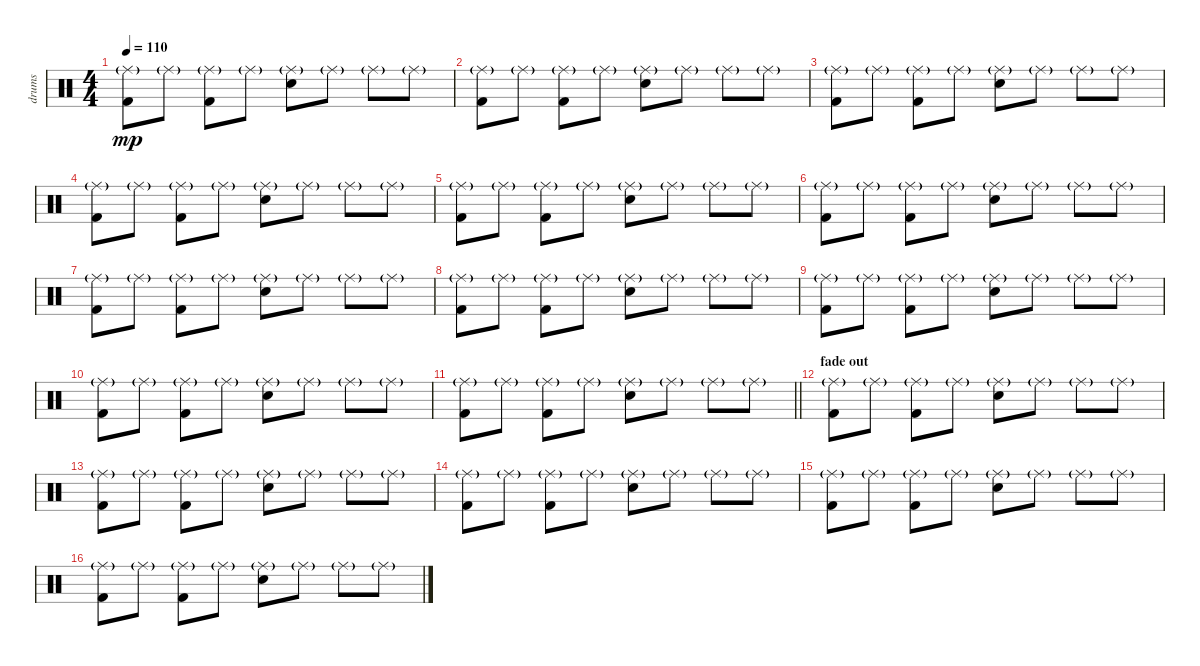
\track ("drums" "drums") {instrument percussion}
\staff {score}
\articulation defaults
\ts (4 4)
\tempo 110
\clef neutral
\ks c
("Kick (hit) 2" "Ride (middle)"{g}).8{dy mp} "Ride (middle)"{g}.8 ("Kick (hit) 2" "Ride (middle)"{g}).8 "Ride (middle)"{g}.8 ("Electric Snare (hit)" "Ride (middle)"{g}).8 "Ride (middle)"{g}.8 "Ride (middle)"{g}.8 "Ride (middle)"{g}.8 |
("Kick (hit) 2" "Ride (middle)"{g}).8 "Ride (middle)"{g}.8 ("Kick (hit) 2" "Ride (middle)"{g}).8 "Ride (middle)"{g}.8 ("Electric Snare (hit)" "Ride (middle)"{g}).8 "Ride (middle)"{g}.8 "Ride (middle)"{g}.8 "Ride (middle)"{g}.8 |
("Kick (hit) 2" "Ride (middle)"{g}).8 "Ride (middle)"{g}.8 ("Kick (hit) 2" "Ride (middle)"{g}).8 "Ride (middle)"{g}.8 ("Electric Snare (hit)" "Ride (middle)"{g}).8 "Ride (middle)"{g}.8 "Ride (middle)"{g}.8 "Ride (middle)"{g}.8 |
("Kick (hit) 2" "Ride (middle)"{g}).8 "Ride (middle)"{g}.8 ("Kick (hit) 2" "Ride (middle)"{g}).8 "Ride (middle)"{g}.8 ("Electric Snare (hit)" "Ride (middle)"{g}).8 "Ride (middle)"{g}.8 "Ride (middle)"{g}.8 "Ride (middle)"{g}.8 |
("Kick (hit) 2" "Ride (middle)"{g}).8 "Ride (middle)"{g}.8 ("Kick (hit) 2" "Ride (middle)"{g}).8 "Ride (middle)"{g}.8 ("Electric Snare (hit)" "Ride (middle)"{g}).8 "Ride (middle)"{g}.8 "Ride (middle)"{g}.8 "Ride (middle)"{g}.8 |
("Kick (hit) 2" "Ride (middle)"{g}).8 "Ride (middle)"{g}.8 ("Kick (hit) 2" "Ride (middle)"{g}).8 "Ride (middle)"{g}.8 ("Electric Snare (hit)" "Ride (middle)"{g}).8 "Ride (middle)"{g}.8 "Ride (middle)"{g}.8 "Ride (middle)"{g}.8 |
("Kick (hit) 2" "Ride (middle)"{g}).8 "Ride (middle)"{g}.8 ("Kick (hit) 2" "Ride (middle)"{g}).8 "Ride (middle)"{g}.8 ("Electric Snare (hit)" "Ride (middle)"{g}).8 "Ride (middle)"{g}.8 "Ride (middle)"{g}.8 "Ride (middle)"{g}.8 |
("Kick (hit) 2" "Ride (middle)"{g}).8 "Ride (middle)"{g}.8 ("Kick (hit) 2" "Ride (middle)"{g}).8 "Ride (middle)"{g}.8 ("Electric Snare (hit)" "Ride (middle)"{g}).8 "Ride (middle)"{g}.8 "Ride (middle)"{g}.8 "Ride (middle)"{g}.8 |
("Kick (hit) 2" "Ride (middle)"{g}).8 "Ride (middle)"{g}.8 ("Kick (hit) 2" "Ride (middle)"{g}).8 "Ride (middle)"{g}.8 ("Electric Snare (hit)" "Ride (middle)"{g}).8 "Ride (middle)"{g}.8 "Ride (middle)"{g}.8 "Ride (middle)"{g}.8 |
("Kick (hit) 2" "Ride (middle)"{g}).8 "Ride (middle)"{g}.8 ("Kick (hit) 2" "Ride (middle)"{g}).8 "Ride (middle)"{g}.8 ("Electric Snare (hit)" "Ride (middle)"{g}).8 "Ride (middle)"{g}.8 "Ride (middle)"{g}.8 "Ride (middle)"{g}.8 |
\barLineRight lightlight
("Kick (hit) 2" "Ride (middle)"{g}).8 "Ride (middle)"{g}.8 ("Kick (hit) 2" "Ride (middle)"{g}).8 "Ride (middle)"{g}.8 ("Electric Snare (hit)" "Ride (middle)"{g}).8 "Ride (middle)"{g}.8 "Ride (middle)"{g}.8 "Ride (middle)"{g}.8 |
\section ("" "fade out")
("Kick (hit) 2" "Ride (middle)"{g}).8 "Ride (middle)"{g}.8 ("Kick (hit) 2" "Ride (middle)"{g}).8 "Ride (middle)"{g}.8 ("Electric Snare (hit)" "Ride (middle)"{g}).8 "Ride (middle)"{g}.8 "Ride (middle)"{g}.8 "Ride (middle)"{g}.8 |
("Kick (hit) 2" "Ride (middle)"{g}).8 "Ride (middle)"{g}.8 ("Kick (hit) 2" "Ride (middle)"{g}).8 "Ride (middle)"{g}.8 ("Electric Snare (hit)" "Ride (middle)"{g}).8 "Ride (middle)"{g}.8 "Ride (middle)"{g}.8 "Ride (middle)"{g}.8 |
("Kick (hit) 2" "Ride (middle)"{g}).8 "Ride (middle)"{g}.8 ("Kick (hit) 2" "Ride (middle)"{g}).8 "Ride (middle)"{g}.8 ("Electric Snare (hit)" "Ride (middle)"{g}).8 "Ride (middle)"{g}.8 "Ride (middle)"{g}.8 "Ride (middle)"{g}.8 |
("Kick (hit) 2" "Ride (middle)"{g}).8 "Ride (middle)"{g}.8 ("Kick (hit) 2" "Ride (middle)"{g}).8 "Ride (middle)"{g}.8 ("Electric Snare (hit)" "Ride (middle)"{g}).8 "Ride (middle)"{g}.8 "Ride (middle)"{g}.8 "Ride (middle)"{g}.8 |
("Kick (hit) 2" "Ride (middle)"{g}).8 "Ride (middle)"{g}.8 ("Kick (hit) 2" "Ride (middle)"{g}).8 "Ride (middle)"{g}.8 ("Electric Snare (hit)" "Ride (middle)"{g}).8 "Ride (middle)"{g}.8 "Ride (middle)"{g}.8 "Ride (middle)"{g}.8
